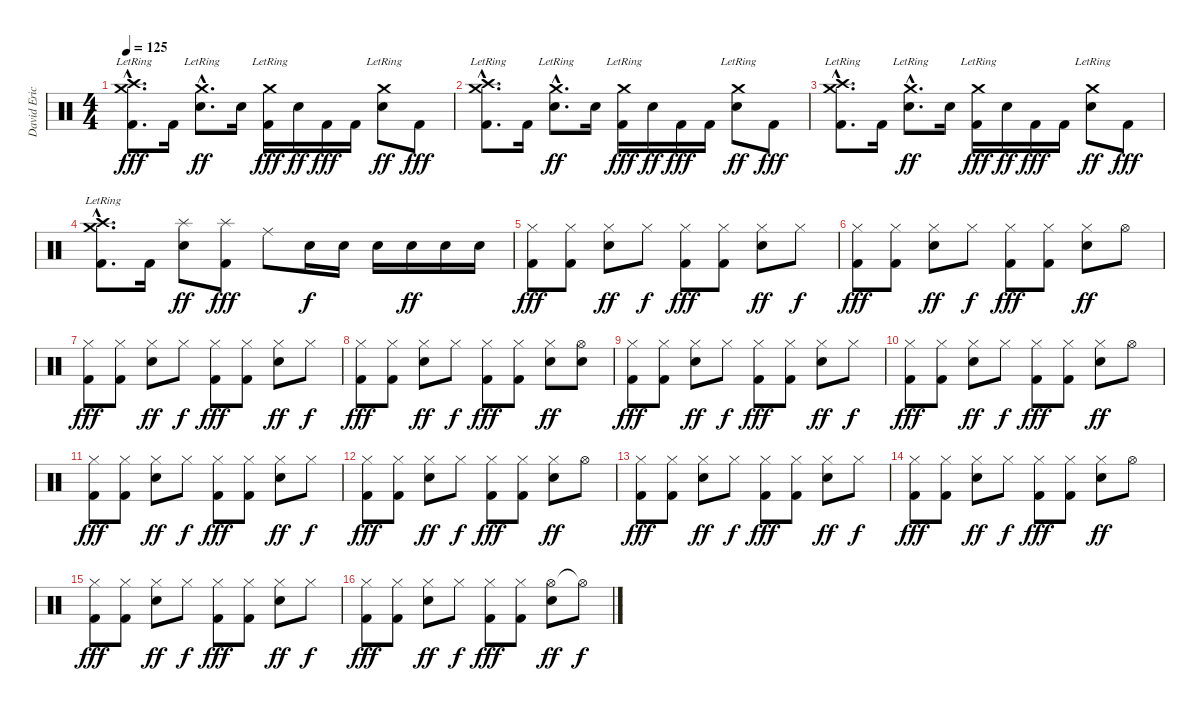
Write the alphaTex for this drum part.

\track ("David Eric Grohl" "David Eric") {instrument percussion}
\staff {score}
\articulation defaults
\ts (4 4)
\tempo 125
\clef neutral
\ks c
("Crash medium (hit)"{hac lr} "Crash high (hit)"{hac lr} "Kick (hit) 2"{hac}).8{d dy fff} "Kick (hit) 2".16 ("Crash medium (hit)"{hac lr} "Electric Snare (hit)"{hac}).8{d dy ff} "Electric Snare (hit)".16 ("Crash medium (hit)"{lr} "Kick (hit) 2").16{dy fff} "Electric Snare (hit)".16{dy ff} "Kick (hit) 2".16{dy fff} "Kick (hit) 2".16 ("Crash medium (hit)"{lr} "Electric Snare (hit)").8{dy ff} "Kick (hit) 2".8{dy fff} |
("Crash medium (hit)"{hac lr} "Crash high (hit)"{hac lr} "Kick (hit) 2"{hac}).8{d} "Kick (hit) 2".16 ("Crash medium (hit)"{hac lr} "Electric Snare (hit)"{hac}).8{d dy ff} "Electric Snare (hit)".16 ("Crash medium (hit)"{lr} "Kick (hit) 2").16{dy fff} "Electric Snare (hit)".16{dy ff} "Kick (hit) 2".16{dy fff} "Kick (hit) 2".16 ("Crash medium (hit)"{lr} "Electric Snare (hit)").8{dy ff} "Kick (hit) 2".8{dy fff} |
("Crash medium (hit)"{hac lr} "Crash high (hit)"{hac lr} "Kick (hit) 2"{hac}).8{d} "Kick (hit) 2".16 ("Crash medium (hit)"{hac lr} "Electric Snare (hit)"{hac}).8{d dy ff} "Electric Snare (hit)".16 ("Crash medium (hit)"{lr} "Kick (hit) 2").16{dy fff} "Electric Snare (hit)".16{dy ff} "Kick (hit) 2".16{dy fff} "Kick (hit) 2".16 ("Crash medium (hit)"{lr} "Electric Snare (hit)").8{dy ff} "Kick (hit) 2".8{dy fff} |
("Crash medium (hit)"{hac lr} "Crash high (hit)"{hac lr} "Kick (hit) 2"{hac}).8{d} "Kick (hit) 2".16 ("Splash (hit)" "Electric Snare (hit)").8{dy ff} ("Splash (hit)" "Kick (hit) 2").8{dy fff} "Ride (middle)".8 "Electric Snare (hit)".16{dy f} "Electric Snare (hit)".16 "Electric Snare (hit)".16 "Electric Snare (hit)".16{dy ff} "Electric Snare (hit)".16 "Electric Snare (hit)".16 |
("Hi-Hat (closed)" "Kick (hit) 2").8{dy fff} ("Hi-Hat (closed)" "Kick (hit) 2").8 ("Hi-Hat (closed)" "Electric Snare (hit)").8{dy ff} "Hi-Hat (closed)".8{dy f} ("Hi-Hat (closed)" "Kick (hit) 2").8{dy fff} ("Hi-Hat (closed)" "Kick (hit) 2").8 ("Hi-Hat (closed)" "Electric Snare (hit)").8{dy ff} "Hi-Hat (closed)".8{dy f} |
("Hi-Hat (closed)" "Kick (hit) 2").8{dy fff} ("Hi-Hat (closed)" "Kick (hit) 2").8 ("Hi-Hat (closed)" "Electric Snare (hit)").8{dy ff} "Hi-Hat (closed)".8{dy f} ("Hi-Hat (closed)" "Kick (hit) 2").8{dy fff} ("Hi-Hat (closed)" "Kick (hit) 2").8 ("Hi-Hat (closed)" "Electric Snare (hit)").8{dy ff} "Hi-Hat (open)".8 |
("Hi-Hat (closed)" "Kick (hit) 2").8{dy fff} ("Hi-Hat (closed)" "Kick (hit) 2").8 ("Hi-Hat (closed)" "Electric Snare (hit)").8{dy ff} "Hi-Hat (closed)".8{dy f} ("Hi-Hat (closed)" "Kick (hit) 2").8{dy fff} ("Hi-Hat (closed)" "Kick (hit) 2").8 ("Hi-Hat (closed)" "Electric Snare (hit)").8{dy ff} "Hi-Hat (closed)".8{dy f} |
("Hi-Hat (closed)" "Kick (hit) 2").8{dy fff} ("Hi-Hat (closed)" "Kick (hit) 2").8 ("Hi-Hat (closed)" "Electric Snare (hit)").8{dy ff} "Hi-Hat (closed)".8{dy f} ("Hi-Hat (closed)" "Kick (hit) 2").8{dy fff} ("Hi-Hat (closed)" "Kick (hit) 2").8 ("Hi-Hat (closed)" "Electric Snare (hit)").8{dy ff} ("Hi-Hat (open)" "Electric Snare (hit)").8 |
("Hi-Hat (closed)" "Kick (hit) 2").8{dy fff} ("Hi-Hat (closed)" "Kick (hit) 2").8 ("Hi-Hat (closed)" "Electric Snare (hit)").8{dy ff} "Hi-Hat (closed)".8{dy f} ("Hi-Hat (closed)" "Kick (hit) 2").8{dy fff} ("Hi-Hat (closed)" "Kick (hit) 2").8 ("Hi-Hat (closed)" "Electric Snare (hit)").8{dy ff} "Hi-Hat (closed)".8{dy f} |
("Hi-Hat (closed)" "Kick (hit) 2").8{dy fff} ("Hi-Hat (closed)" "Kick (hit) 2").8 ("Hi-Hat (closed)" "Electric Snare (hit)").8{dy ff} "Hi-Hat (closed)".8{dy f} ("Hi-Hat (closed)" "Kick (hit) 2").8{dy fff} ("Hi-Hat (closed)" "Kick (hit) 2").8 ("Hi-Hat (closed)" "Electric Snare (hit)").8{dy ff} "Hi-Hat (open)".8 |
("Hi-Hat (closed)" "Kick (hit) 2").8{dy fff} ("Hi-Hat (closed)" "Kick (hit) 2").8 ("Hi-Hat (closed)" "Electric Snare (hit)").8{dy ff} "Hi-Hat (closed)".8{dy f} ("Hi-Hat (closed)" "Kick (hit) 2").8{dy fff} ("Hi-Hat (closed)" "Kick (hit) 2").8 ("Hi-Hat (closed)" "Electric Snare (hit)").8{dy ff} "Hi-Hat (closed)".8{dy f} |
("Hi-Hat (closed)" "Kick (hit) 2").8{dy fff} ("Hi-Hat (closed)" "Kick (hit) 2").8 ("Hi-Hat (closed)" "Electric Snare (hit)").8{dy ff} "Hi-Hat (closed)".8{dy f} ("Hi-Hat (closed)" "Kick (hit) 2").8{dy fff} ("Hi-Hat (closed)" "Kick (hit) 2").8 ("Hi-Hat (closed)" "Electric Snare (hit)").8{dy ff} "Hi-Hat (open)".8 |
("Hi-Hat (closed)" "Kick (hit) 2").8{dy fff} ("Hi-Hat (closed)" "Kick (hit) 2").8 ("Hi-Hat (closed)" "Electric Snare (hit)").8{dy ff} "Hi-Hat (closed)".8{dy f} ("Hi-Hat (closed)" "Kick (hit) 2").8{dy fff} ("Hi-Hat (closed)" "Kick (hit) 2").8 ("Hi-Hat (closed)" "Electric Snare (hit)").8{dy ff} "Hi-Hat (closed)".8{dy f} |
("Hi-Hat (closed)" "Kick (hit) 2").8{dy fff} ("Hi-Hat (closed)" "Kick (hit) 2").8 ("Hi-Hat (closed)" "Electric Snare (hit)").8{dy ff} "Hi-Hat (closed)".8{dy f} ("Hi-Hat (closed)" "Kick (hit) 2").8{dy fff} ("Hi-Hat (closed)" "Kick (hit) 2").8 ("Hi-Hat (closed)" "Electric Snare (hit)").8{dy ff} "Hi-Hat (open)".8 |
("Hi-Hat (closed)" "Kick (hit) 2").8{dy fff} ("Hi-Hat (closed)" "Kick (hit) 2").8 ("Hi-Hat (closed)" "Electric Snare (hit)").8{dy ff} "Hi-Hat (closed)".8{dy f} ("Hi-Hat (closed)" "Kick (hit) 2").8{dy fff} ("Hi-Hat (closed)" "Kick (hit) 2").8 ("Hi-Hat (closed)" "Electric Snare (hit)").8{dy ff} "Hi-Hat (closed)".8{dy f} |
("Hi-Hat (closed)" "Kick (hit) 2").8{dy fff} ("Hi-Hat (closed)" "Kick (hit) 2").8 ("Hi-Hat (closed)" "Electric Snare (hit)").8{dy ff} "Hi-Hat (closed)".8{dy f} ("Hi-Hat (closed)" "Kick (hit) 2").8{dy fff} ("Hi-Hat (closed)" "Kick (hit) 2").8 ("Hi-Hat (open)" "Electric Snare (hit)").8{dy ff} "Hi-Hat (open)"{t}.8{dy f}
